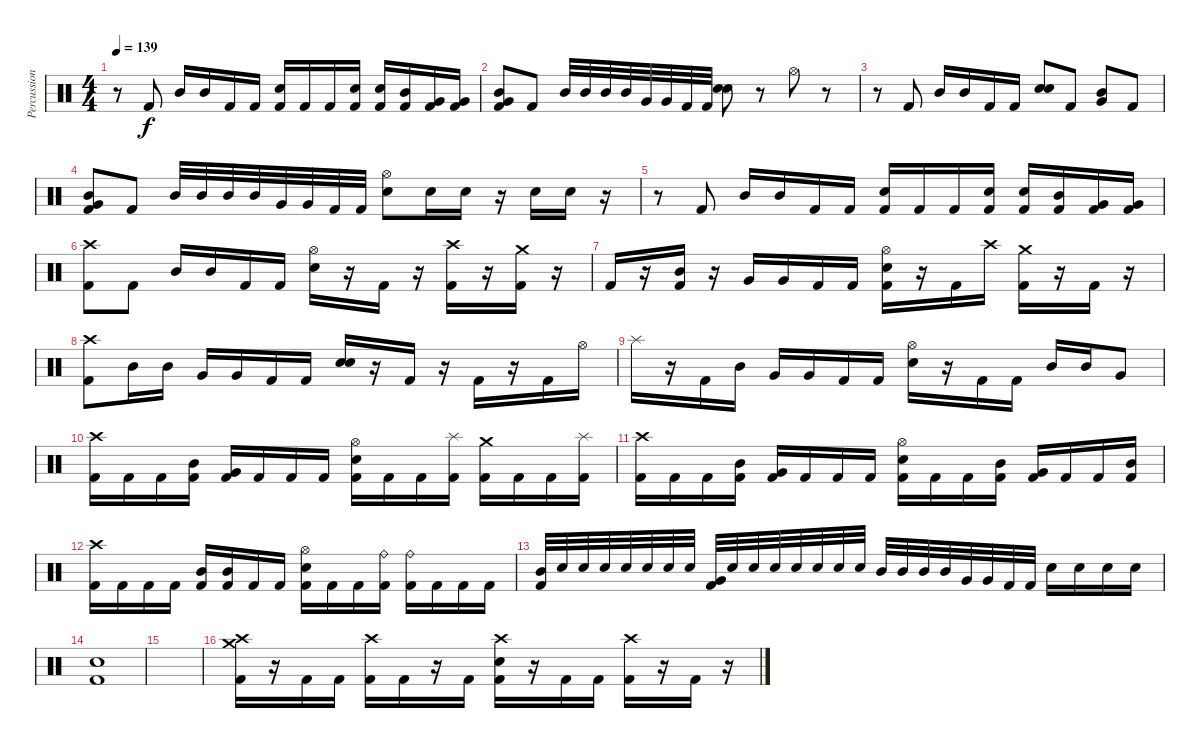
\track ("Percussion" "Percussion") {instrument percussion}
\staff {score}
\articulation defaults
\ts (4 4)
\tempo 139
\clef neutral
\ks c
r.8{dy f} "Kick (hit) 2".8 "Mid Tom (hit)".16 "Mid Tom (hit)".16 "Kick (hit) 2".16 "Kick (hit) 2".16 ("Kick (hit) 2" "Electric Snare (hit)").16 "Kick (hit) 2".16 "Kick (hit) 2".16 ("Kick (hit) 2" "Electric Snare (hit)").16 ("Kick (hit) 2" "Electric Snare (hit)").16 ("Kick (hit) 2" "Mid Tom (hit)").16 ("Kick (hit) 2" "Very Low Tom (hit)").16 ("Kick (hit) 2" "Very Low Tom (hit)").16 |
("Kick (hit) 2" "Very Low Tom (hit)" "Mid Tom (hit)").8 "Kick (hit) 2".8 "Mid Tom (hit)".32 "Mid Tom (hit)".32 "Mid Tom (hit)".32 "Mid Tom (hit)".32 "Very Low Tom (hit)".32 "Very Low Tom (hit)".32 "Kick (hit) 2".32 "Kick (hit) 2".32 ("Electric Snare (hit)" "Electric Snare (hit)").8 r.8 "Hi-Hat (open)".8 r.8 |
r.8 "Kick (hit) 2".8 "Mid Tom (hit)".16 "Mid Tom (hit)".16 "Kick (hit) 2".16 "Kick (hit) 2".16 ("Electric Snare (hit)" "Electric Snare (hit)").8 "Kick (hit) 2".8 ("Very Low Tom (hit)" "Mid Tom (hit)").8 "Kick (hit) 2".8 |
("Kick (hit) 2" "Very Low Tom (hit)" "Mid Tom (hit)").8 "Kick (hit) 2".8 "Mid Tom (hit)".32 "Mid Tom (hit)".32 "Mid Tom (hit)".32 "Mid Tom (hit)".32 "Very Low Tom (hit)".32 "Very Low Tom (hit)".32 "Kick (hit) 2".32 "Kick (hit) 2".32 ("Electric Snare (hit)" "Hi-Hat (open)").8 "Electric Snare (hit)".16 "Electric Snare (hit)".16 r.16 "Electric Snare (hit)".16 "Electric Snare (hit)".16 r.16 |
r.8 "Kick (hit) 2".8 "Mid Tom (hit)".16 "Mid Tom (hit)".16 "Kick (hit) 2".16 "Kick (hit) 2".16 ("Kick (hit) 2" "Electric Snare (hit)").16 "Kick (hit) 2".16 "Kick (hit) 2".16 ("Kick (hit) 2" "Electric Snare (hit)").16 ("Kick (hit) 2" "Electric Snare (hit)").16 ("Kick (hit) 2" "Mid Tom (hit)").16 ("Kick (hit) 2" "Very Low Tom (hit)").16 ("Kick (hit) 2" "Very Low Tom (hit)").16 |
("Kick (hit) 2" "Crash high (hit)").8 "Kick (hit) 2".8 "Mid Tom (hit)".16 "Mid Tom (hit)".16 "Kick (hit) 2".16 "Kick (hit) 2".16 ("Electric Snare (hit)" "Hi-Hat (open)").16 r.16 "Kick (hit) 2".16 r.16 ("Kick (hit) 2" "Crash high (hit)").16 r.16 ("Kick (hit) 2" "Crash medium (hit)").16 r.16 |
"Kick (hit) 2".16 r.16 ("Kick (hit) 2" "Mid Tom (hit)").16 r.16 "Very Low Tom (hit)".16 "Very Low Tom (hit)".16 "Kick (hit) 2".16 "Kick (hit) 2".16 ("Kick (hit) 2" "Electric Snare (hit)" "Hi-Hat (open)").16 r.16 "Kick (hit) 2".16 "Crash high (hit)".16 ("Kick (hit) 2" "Crash medium (hit)").16 r.16 "Kick (hit) 2".16 r.16 |
("Kick (hit) 2" "Crash high (hit)").8 "Mid Tom (hit)".16 "Mid Tom (hit)".16 "Very Low Tom (hit)".16 "Very Low Tom (hit)".16 "Kick (hit) 2".16 "Kick (hit) 2".16 ("Electric Snare (hit)" "Electric Snare (hit)").16 r.16 "Kick (hit) 2".16 r.16 "Kick (hit) 2".16 r.16 "Kick (hit) 2".16 "Hi-Hat (open)".16 |
"Splash (hit)".16 r.16 "Kick (hit) 2".16 "Mid Tom (hit)".16 "Very Low Tom (hit)".16 "Very Low Tom (hit)".16 "Kick (hit) 2".16 "Kick (hit) 2".16 ("Electric Snare (hit)" "Hi-Hat (open)").16 r.16 "Kick (hit) 2".16 "Kick (hit) 2".16 "Mid Tom (hit)".16 "Mid Tom (hit)".16 "Very Low Tom (hit)".8 |
("Kick (hit) 2" "Crash high (hit)").16 "Kick (hit) 2".16 "Kick (hit) 2".16 ("Kick (hit) 2" "Mid Tom (hit)").16 ("Kick (hit) 2" "Very Low Tom (hit)").16 "Kick (hit) 2".16 "Kick (hit) 2".16 "Kick (hit) 2".16 ("Kick (hit) 2" "Electric Snare (hit)" "Hi-Hat (open)").16 "Kick (hit) 2".16 "Kick (hit) 2".16 ("Kick (hit) 2" "Splash (hit)").16 ("Kick (hit) 2" "Crash medium (hit)").16 "Kick (hit) 2".16 "Kick (hit) 2".16 ("Kick (hit) 2" "Splash (hit)").16 |
("Kick (hit) 2" "Crash high (hit)").16 "Kick (hit) 2".16 "Kick (hit) 2".16 ("Kick (hit) 2" "Mid Tom (hit)").16 ("Kick (hit) 2" "Very Low Tom (hit)").16 "Kick (hit) 2".16 "Kick (hit) 2".16 "Kick (hit) 2".16 ("Kick (hit) 2" "Electric Snare (hit)" "Hi-Hat (open)").16 "Kick (hit) 2".16 "Kick (hit) 2".16 ("Kick (hit) 2" "Mid Tom (hit)").16 ("Kick (hit) 2" "Very Low Tom (hit)").16 "Kick (hit) 2".16 "Kick (hit) 2".16 ("Kick (hit) 2" "Mid Tom (hit)").16 |
("Kick (hit) 2" "Crash high (hit)").16 "Kick (hit) 2".16 "Kick (hit) 2".16 "Kick (hit) 2".16 ("Kick (hit) 2" "Mid Tom (hit)").16 ("Kick (hit) 2" "Mid Tom (hit)").16 "Kick (hit) 2".16 "Kick (hit) 2".16 ("Kick (hit) 2" "Electric Snare (hit)" "Hi-Hat (open)").16 "Kick (hit) 2".16 "Kick (hit) 2".16 ("Kick (hit) 2" "Ride (bell)").16 ("Kick (hit) 2" "Ride (bell)").16 "Kick (hit) 2".16 "Kick (hit) 2".16 "Kick (hit) 2".16 |
("Kick (hit) 2" "Mid Tom (hit)").32 "Electric Snare (hit)".32 "Electric Snare (hit)".32 "Electric Snare (hit)".32 "Electric Snare (hit)".32 "Electric Snare (hit)".32 "Electric Snare (hit)".32 "Electric Snare (hit)".32 ("Kick (hit) 2" "Very Low Tom (hit)").32 "Electric Snare (hit)".32 "Electric Snare (hit)".32 "Electric Snare (hit)".32 "Electric Snare (hit)".32 "Electric Snare (hit)".32 "Electric Snare (hit)".32 "Electric Snare (hit)".32 "Mid Tom (hit)".32 "Mid Tom (hit)".32 "Mid Tom (hit)".32 "Mid Tom (hit)".32 "Very Low Tom (hit)".32 "Very Low Tom (hit)".32 "Kick (hit) 2".32 "Kick (hit) 2".32 "Electric Snare (hit)".16 "Electric Snare (hit)".16 "Electric Snare (hit)".16 "Electric Snare (hit)".16 |
("Kick (hit) 2" "Electric Snare (hit)").1 |
|
("Kick (hit) 2" "Crash medium (hit)" "Crash high (hit)").16 r.16 "Kick (hit) 2".16 "Kick (hit) 2".16 ("Kick (hit) 2" "Crash high (hit)").16 "Kick (hit) 2".16 r.16 "Kick (hit) 2".16 ("Kick (hit) 2" "Electric Snare (hit)" "Crash high (hit)").16 r.16 "Kick (hit) 2".16 "Kick (hit) 2".16 ("Kick (hit) 2" "Crash high (hit)").16 r.16 "Kick (hit) 2".16 r.16
